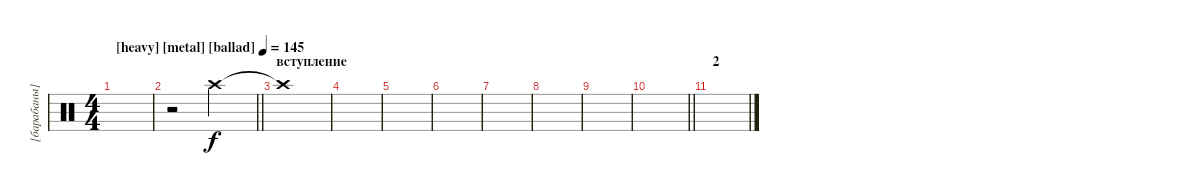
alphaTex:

\track ("[барабаны]" "[барабаны]") {instrument percussion}
\staff
\articulation defaults
\ts (4 4)
\tempo (145 "[heavy] [metal] [ballad]")
\clef neutral
\ks c
|
\barLineRight lightlight
r.2{volume 0} "Crash high (hit)".2{volume 13} |
\section ("" "вступление")
"Crash high (hit)"{t}.1 |
|
|
|
|
|
|
\barLineRight lightlight
|
\section ("" "2")
